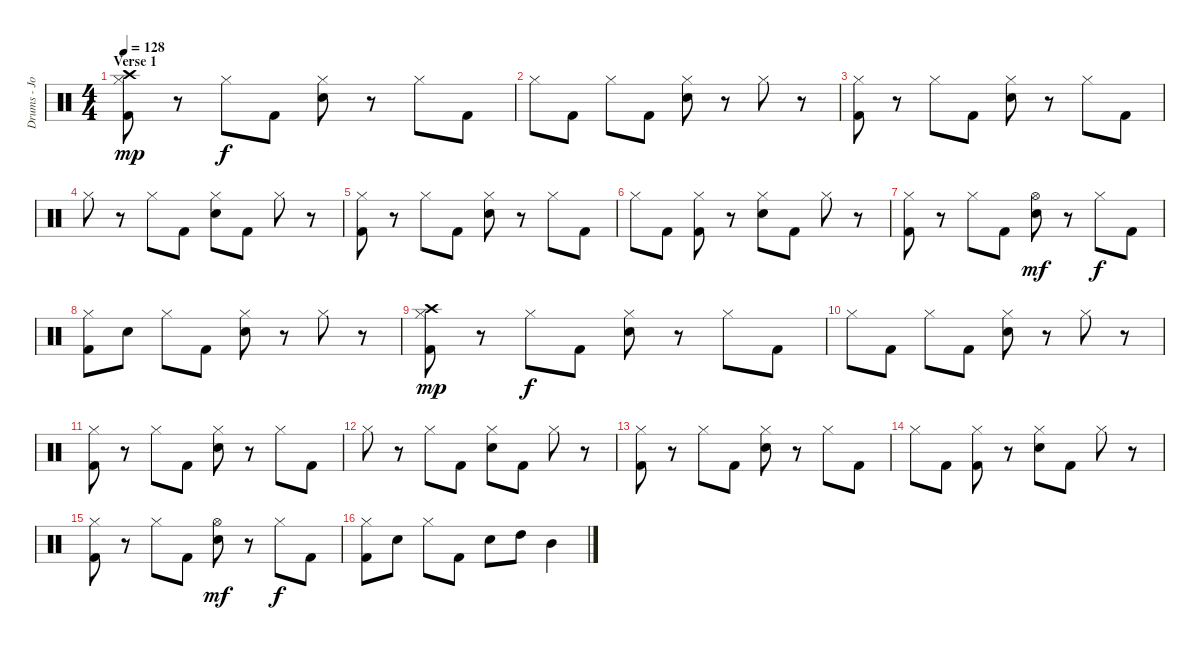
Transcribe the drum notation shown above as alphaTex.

\track ("Drums - John Humphrey" "Drums - Jo") {instrument percussion}
\staff {score}
\articulation defaults
\ts (4 4)
\section ("" "Verse 1")
\tempo 128
\clef neutral
\ks c
("Crash high (hit)" "Hi-Hat (closed)" "Kick (hit) 2").8{dy mp} r.8 "Hi-Hat (closed)".8{dy f} "Kick (hit) 2".8 ("Hi-Hat (closed)" "Electric Snare (hit)").8 r.8 "Hi-Hat (closed)".8 "Kick (hit) 2".8 |
"Hi-Hat (closed)".8 "Kick (hit) 2".8 "Hi-Hat (closed)".8 "Kick (hit) 2".8 ("Hi-Hat (closed)" "Electric Snare (hit)").8 r.8 "Hi-Hat (closed)".8 r.8 |
("Hi-Hat (closed)" "Kick (hit) 2").8 r.8 "Hi-Hat (closed)".8 "Kick (hit) 2".8 ("Hi-Hat (closed)" "Electric Snare (hit)").8 r.8 "Hi-Hat (closed)".8 "Kick (hit) 2".8 |
"Hi-Hat (closed)".8 r.8 "Hi-Hat (closed)".8 "Kick (hit) 2".8 ("Hi-Hat (closed)" "Electric Snare (hit)").8 "Kick (hit) 2".8 "Hi-Hat (closed)".8 r.8 |
("Hi-Hat (closed)" "Kick (hit) 2").8 r.8 "Hi-Hat (closed)".8 "Kick (hit) 2".8 ("Hi-Hat (closed)" "Electric Snare (hit)").8 r.8 "Hi-Hat (closed)".8 "Kick (hit) 2".8 |
"Hi-Hat (closed)".8 "Kick (hit) 2".8 ("Hi-Hat (closed)" "Kick (hit) 2").8 r.8 ("Hi-Hat (closed)" "Electric Snare (hit)").8 "Kick (hit) 2".8 "Hi-Hat (closed)".8 r.8 |
("Hi-Hat (closed)" "Kick (hit) 2").8 r.8 "Hi-Hat (closed)".8 "Kick (hit) 2".8 ("Hi-Hat (open)" "Electric Snare (hit)").8{dy mf} r.8 "Hi-Hat (closed)".8{dy f} "Kick (hit) 2".8 |
("Hi-Hat (closed)" "Kick (hit) 2").8 "Electric Snare (hit)".8 "Hi-Hat (closed)".8 "Kick (hit) 2".8 ("Hi-Hat (closed)" "Electric Snare (hit)").8 r.8 "Hi-Hat (closed)".8 r.8 |
("Crash high (hit)" "Hi-Hat (closed)" "Kick (hit) 2").8{dy mp} r.8 "Hi-Hat (closed)".8{dy f} "Kick (hit) 2".8 ("Hi-Hat (closed)" "Electric Snare (hit)").8 r.8 "Hi-Hat (closed)".8 "Kick (hit) 2".8 |
"Hi-Hat (closed)".8 "Kick (hit) 2".8 "Hi-Hat (closed)".8 "Kick (hit) 2".8 ("Hi-Hat (closed)" "Electric Snare (hit)").8 r.8 "Hi-Hat (closed)".8 r.8 |
("Hi-Hat (closed)" "Kick (hit) 2").8 r.8 "Hi-Hat (closed)".8 "Kick (hit) 2".8 ("Hi-Hat (closed)" "Electric Snare (hit)").8 r.8 "Hi-Hat (closed)".8 "Kick (hit) 2".8 |
"Hi-Hat (closed)".8 r.8 "Hi-Hat (closed)".8 "Kick (hit) 2".8 ("Hi-Hat (closed)" "Electric Snare (hit)").8 "Kick (hit) 2".8 "Hi-Hat (closed)".8 r.8 |
("Hi-Hat (closed)" "Kick (hit) 2").8 r.8 "Hi-Hat (closed)".8 "Kick (hit) 2".8 ("Hi-Hat (closed)" "Electric Snare (hit)").8 r.8 "Hi-Hat (closed)".8 "Kick (hit) 2".8 |
"Hi-Hat (closed)".8 "Kick (hit) 2".8 ("Hi-Hat (closed)" "Kick (hit) 2").8 r.8 ("Hi-Hat (closed)" "Electric Snare (hit)").8 "Kick (hit) 2".8 "Hi-Hat (closed)".8 r.8 |
("Hi-Hat (closed)" "Kick (hit) 2").8 r.8 "Hi-Hat (closed)".8 "Kick (hit) 2".8 ("Hi-Hat (open)" "Electric Snare (hit)").8{dy mf} r.8 "Hi-Hat (closed)".8{dy f} "Kick (hit) 2".8 |
("Hi-Hat (closed)" "Kick (hit) 2").8 "Electric Snare (hit)".8 "Hi-Hat (closed)".8 "Kick (hit) 2".8 "Electric Snare (hit)".8 "High Tom (hit)".8 "Mid Tom (hit)".4
